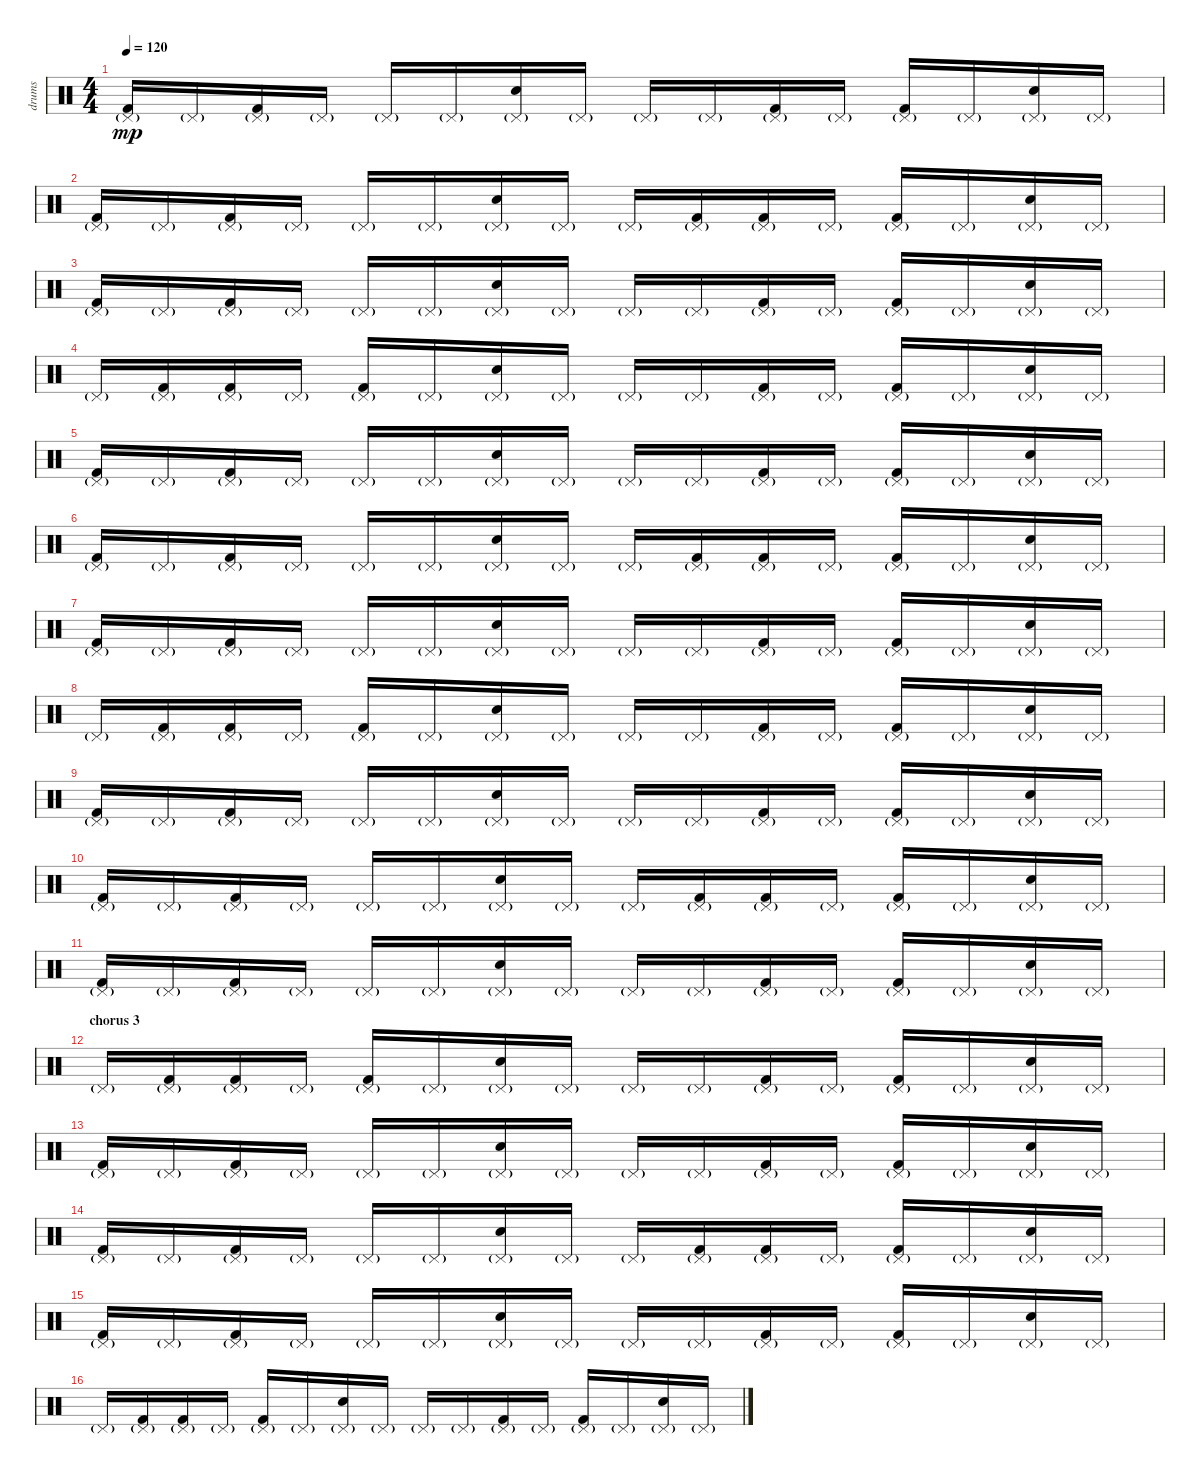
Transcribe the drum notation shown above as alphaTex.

\track ("drums" "drums") {instrument percussion}
\staff {score}
\articulation defaults
\ts (4 4)
\tempo 120
\clef neutral
\ks c
("Kick (hit) 2" "Pedal Hi-Hat (hit)"{g}).16{dy mp} "Pedal Hi-Hat (hit)"{g}.16 ("Kick (hit) 2" "Pedal Hi-Hat (hit)"{g}).16 "Pedal Hi-Hat (hit)"{g}.16 "Pedal Hi-Hat (hit)"{g}.16 "Pedal Hi-Hat (hit)"{g}.16 ("Hand Clap (hit)" "Pedal Hi-Hat (hit)"{g}).16 "Pedal Hi-Hat (hit)"{g}.16 "Pedal Hi-Hat (hit)"{g}.16 "Pedal Hi-Hat (hit)"{g}.16 ("Kick (hit) 2" "Pedal Hi-Hat (hit)"{g}).16 "Pedal Hi-Hat (hit)"{g}.16 ("Kick (hit) 2" "Pedal Hi-Hat (hit)"{g}).16 "Pedal Hi-Hat (hit)"{g}.16 ("Hand Clap (hit)" "Pedal Hi-Hat (hit)"{g}).16 "Pedal Hi-Hat (hit)"{g}.16 |
("Kick (hit) 2" "Pedal Hi-Hat (hit)"{g}).16 "Pedal Hi-Hat (hit)"{g}.16 ("Kick (hit) 2" "Pedal Hi-Hat (hit)"{g}).16 "Pedal Hi-Hat (hit)"{g}.16 "Pedal Hi-Hat (hit)"{g}.16 "Pedal Hi-Hat (hit)"{g}.16 ("Hand Clap (hit)" "Pedal Hi-Hat (hit)"{g}).16 "Pedal Hi-Hat (hit)"{g}.16 "Pedal Hi-Hat (hit)"{g}.16 ("Kick (hit) 2" "Pedal Hi-Hat (hit)"{g}).16 ("Kick (hit) 2" "Pedal Hi-Hat (hit)"{g}).16 "Pedal Hi-Hat (hit)"{g}.16 ("Kick (hit) 2" "Pedal Hi-Hat (hit)"{g}).16 "Pedal Hi-Hat (hit)"{g}.16 ("Hand Clap (hit)" "Pedal Hi-Hat (hit)"{g}).16 "Pedal Hi-Hat (hit)"{g}.16 |
("Kick (hit) 2" "Pedal Hi-Hat (hit)"{g}).16 "Pedal Hi-Hat (hit)"{g}.16 ("Kick (hit) 2" "Pedal Hi-Hat (hit)"{g}).16 "Pedal Hi-Hat (hit)"{g}.16 "Pedal Hi-Hat (hit)"{g}.16 "Pedal Hi-Hat (hit)"{g}.16 ("Hand Clap (hit)" "Pedal Hi-Hat (hit)"{g}).16 "Pedal Hi-Hat (hit)"{g}.16 "Pedal Hi-Hat (hit)"{g}.16 "Pedal Hi-Hat (hit)"{g}.16 ("Kick (hit) 2" "Pedal Hi-Hat (hit)"{g}).16 "Pedal Hi-Hat (hit)"{g}.16 ("Kick (hit) 2" "Pedal Hi-Hat (hit)"{g}).16 "Pedal Hi-Hat (hit)"{g}.16 ("Hand Clap (hit)" "Pedal Hi-Hat (hit)"{g}).16 "Pedal Hi-Hat (hit)"{g}.16 |
"Pedal Hi-Hat (hit)"{g}.16 ("Kick (hit) 2" "Pedal Hi-Hat (hit)"{g}).16 ("Kick (hit) 2" "Pedal Hi-Hat (hit)"{g}).16 "Pedal Hi-Hat (hit)"{g}.16 ("Kick (hit) 2" "Pedal Hi-Hat (hit)"{g}).16 "Pedal Hi-Hat (hit)"{g}.16 ("Hand Clap (hit)" "Pedal Hi-Hat (hit)"{g}).16 "Pedal Hi-Hat (hit)"{g}.16 "Pedal Hi-Hat (hit)"{g}.16 "Pedal Hi-Hat (hit)"{g}.16 ("Kick (hit) 2" "Pedal Hi-Hat (hit)"{g}).16 "Pedal Hi-Hat (hit)"{g}.16 ("Kick (hit) 2" "Pedal Hi-Hat (hit)"{g}).16 "Pedal Hi-Hat (hit)"{g}.16 ("Hand Clap (hit)" "Pedal Hi-Hat (hit)"{g}).16 "Pedal Hi-Hat (hit)"{g}.16 |
("Kick (hit) 2" "Pedal Hi-Hat (hit)"{g}).16 "Pedal Hi-Hat (hit)"{g}.16 ("Kick (hit) 2" "Pedal Hi-Hat (hit)"{g}).16 "Pedal Hi-Hat (hit)"{g}.16 "Pedal Hi-Hat (hit)"{g}.16 "Pedal Hi-Hat (hit)"{g}.16 ("Hand Clap (hit)" "Pedal Hi-Hat (hit)"{g}).16 "Pedal Hi-Hat (hit)"{g}.16 "Pedal Hi-Hat (hit)"{g}.16 "Pedal Hi-Hat (hit)"{g}.16 ("Kick (hit) 2" "Pedal Hi-Hat (hit)"{g}).16 "Pedal Hi-Hat (hit)"{g}.16 ("Kick (hit) 2" "Pedal Hi-Hat (hit)"{g}).16 "Pedal Hi-Hat (hit)"{g}.16 ("Hand Clap (hit)" "Pedal Hi-Hat (hit)"{g}).16 "Pedal Hi-Hat (hit)"{g}.16 |
("Kick (hit) 2" "Pedal Hi-Hat (hit)"{g}).16 "Pedal Hi-Hat (hit)"{g}.16 ("Kick (hit) 2" "Pedal Hi-Hat (hit)"{g}).16 "Pedal Hi-Hat (hit)"{g}.16 "Pedal Hi-Hat (hit)"{g}.16 "Pedal Hi-Hat (hit)"{g}.16 ("Hand Clap (hit)" "Pedal Hi-Hat (hit)"{g}).16 "Pedal Hi-Hat (hit)"{g}.16 "Pedal Hi-Hat (hit)"{g}.16 ("Kick (hit) 2" "Pedal Hi-Hat (hit)"{g}).16 ("Kick (hit) 2" "Pedal Hi-Hat (hit)"{g}).16 "Pedal Hi-Hat (hit)"{g}.16 ("Kick (hit) 2" "Pedal Hi-Hat (hit)"{g}).16 "Pedal Hi-Hat (hit)"{g}.16 ("Hand Clap (hit)" "Pedal Hi-Hat (hit)"{g}).16 "Pedal Hi-Hat (hit)"{g}.16 |
("Kick (hit) 2" "Pedal Hi-Hat (hit)"{g}).16 "Pedal Hi-Hat (hit)"{g}.16 ("Kick (hit) 2" "Pedal Hi-Hat (hit)"{g}).16 "Pedal Hi-Hat (hit)"{g}.16 "Pedal Hi-Hat (hit)"{g}.16 "Pedal Hi-Hat (hit)"{g}.16 ("Hand Clap (hit)" "Pedal Hi-Hat (hit)"{g}).16 "Pedal Hi-Hat (hit)"{g}.16 "Pedal Hi-Hat (hit)"{g}.16 "Pedal Hi-Hat (hit)"{g}.16 ("Kick (hit) 2" "Pedal Hi-Hat (hit)"{g}).16 "Pedal Hi-Hat (hit)"{g}.16 ("Kick (hit) 2" "Pedal Hi-Hat (hit)"{g}).16 "Pedal Hi-Hat (hit)"{g}.16 ("Hand Clap (hit)" "Pedal Hi-Hat (hit)"{g}).16 "Pedal Hi-Hat (hit)"{g}.16 |
"Pedal Hi-Hat (hit)"{g}.16 ("Kick (hit) 2" "Pedal Hi-Hat (hit)"{g}).16 ("Kick (hit) 2" "Pedal Hi-Hat (hit)"{g}).16 "Pedal Hi-Hat (hit)"{g}.16 ("Kick (hit) 2" "Pedal Hi-Hat (hit)"{g}).16 "Pedal Hi-Hat (hit)"{g}.16 ("Hand Clap (hit)" "Pedal Hi-Hat (hit)"{g}).16 "Pedal Hi-Hat (hit)"{g}.16 "Pedal Hi-Hat (hit)"{g}.16 "Pedal Hi-Hat (hit)"{g}.16 ("Kick (hit) 2" "Pedal Hi-Hat (hit)"{g}).16 "Pedal Hi-Hat (hit)"{g}.16 ("Kick (hit) 2" "Pedal Hi-Hat (hit)"{g}).16 "Pedal Hi-Hat (hit)"{g}.16 ("Hand Clap (hit)" "Pedal Hi-Hat (hit)"{g}).16 "Pedal Hi-Hat (hit)"{g}.16 |
("Kick (hit) 2" "Pedal Hi-Hat (hit)"{g}).16 "Pedal Hi-Hat (hit)"{g}.16 ("Kick (hit) 2" "Pedal Hi-Hat (hit)"{g}).16 "Pedal Hi-Hat (hit)"{g}.16 "Pedal Hi-Hat (hit)"{g}.16 "Pedal Hi-Hat (hit)"{g}.16 ("Hand Clap (hit)" "Pedal Hi-Hat (hit)"{g}).16 "Pedal Hi-Hat (hit)"{g}.16 "Pedal Hi-Hat (hit)"{g}.16 "Pedal Hi-Hat (hit)"{g}.16 ("Kick (hit) 2" "Pedal Hi-Hat (hit)"{g}).16 "Pedal Hi-Hat (hit)"{g}.16 ("Kick (hit) 2" "Pedal Hi-Hat (hit)"{g}).16 "Pedal Hi-Hat (hit)"{g}.16 ("Hand Clap (hit)" "Pedal Hi-Hat (hit)"{g}).16 "Pedal Hi-Hat (hit)"{g}.16 |
("Kick (hit) 2" "Pedal Hi-Hat (hit)"{g}).16 "Pedal Hi-Hat (hit)"{g}.16 ("Kick (hit) 2" "Pedal Hi-Hat (hit)"{g}).16 "Pedal Hi-Hat (hit)"{g}.16 "Pedal Hi-Hat (hit)"{g}.16 "Pedal Hi-Hat (hit)"{g}.16 ("Hand Clap (hit)" "Pedal Hi-Hat (hit)"{g}).16 "Pedal Hi-Hat (hit)"{g}.16 "Pedal Hi-Hat (hit)"{g}.16 ("Kick (hit) 2" "Pedal Hi-Hat (hit)"{g}).16 ("Kick (hit) 2" "Pedal Hi-Hat (hit)"{g}).16 "Pedal Hi-Hat (hit)"{g}.16 ("Kick (hit) 2" "Pedal Hi-Hat (hit)"{g}).16 "Pedal Hi-Hat (hit)"{g}.16 ("Hand Clap (hit)" "Pedal Hi-Hat (hit)"{g}).16 "Pedal Hi-Hat (hit)"{g}.16 |
("Kick (hit) 2" "Pedal Hi-Hat (hit)"{g}).16 "Pedal Hi-Hat (hit)"{g}.16 ("Kick (hit) 2" "Pedal Hi-Hat (hit)"{g}).16 "Pedal Hi-Hat (hit)"{g}.16 "Pedal Hi-Hat (hit)"{g}.16 "Pedal Hi-Hat (hit)"{g}.16 ("Hand Clap (hit)" "Pedal Hi-Hat (hit)"{g}).16 "Pedal Hi-Hat (hit)"{g}.16 "Pedal Hi-Hat (hit)"{g}.16 "Pedal Hi-Hat (hit)"{g}.16 ("Kick (hit) 2" "Pedal Hi-Hat (hit)"{g}).16 "Pedal Hi-Hat (hit)"{g}.16 ("Kick (hit) 2" "Pedal Hi-Hat (hit)"{g}).16 "Pedal Hi-Hat (hit)"{g}.16 ("Hand Clap (hit)" "Pedal Hi-Hat (hit)"{g}).16 "Pedal Hi-Hat (hit)"{g}.16 |
\section ("" "chorus 3")
"Pedal Hi-Hat (hit)"{g}.16 ("Kick (hit) 2" "Pedal Hi-Hat (hit)"{g}).16 ("Kick (hit) 2" "Pedal Hi-Hat (hit)"{g}).16 "Pedal Hi-Hat (hit)"{g}.16 ("Kick (hit) 2" "Pedal Hi-Hat (hit)"{g}).16 "Pedal Hi-Hat (hit)"{g}.16 ("Hand Clap (hit)" "Pedal Hi-Hat (hit)"{g}).16 "Pedal Hi-Hat (hit)"{g}.16 "Pedal Hi-Hat (hit)"{g}.16 "Pedal Hi-Hat (hit)"{g}.16 ("Kick (hit) 2" "Pedal Hi-Hat (hit)"{g}).16 "Pedal Hi-Hat (hit)"{g}.16 ("Kick (hit) 2" "Pedal Hi-Hat (hit)"{g}).16 "Pedal Hi-Hat (hit)"{g}.16 ("Hand Clap (hit)" "Pedal Hi-Hat (hit)"{g}).16 "Pedal Hi-Hat (hit)"{g}.16 |
("Kick (hit) 2" "Pedal Hi-Hat (hit)"{g}).16 "Pedal Hi-Hat (hit)"{g}.16 ("Kick (hit) 2" "Pedal Hi-Hat (hit)"{g}).16 "Pedal Hi-Hat (hit)"{g}.16 "Pedal Hi-Hat (hit)"{g}.16 "Pedal Hi-Hat (hit)"{g}.16 ("Hand Clap (hit)" "Pedal Hi-Hat (hit)"{g}).16 "Pedal Hi-Hat (hit)"{g}.16 "Pedal Hi-Hat (hit)"{g}.16 "Pedal Hi-Hat (hit)"{g}.16 ("Kick (hit) 2" "Pedal Hi-Hat (hit)"{g}).16 "Pedal Hi-Hat (hit)"{g}.16 ("Kick (hit) 2" "Pedal Hi-Hat (hit)"{g}).16 "Pedal Hi-Hat (hit)"{g}.16 ("Hand Clap (hit)" "Pedal Hi-Hat (hit)"{g}).16 "Pedal Hi-Hat (hit)"{g}.16 |
("Kick (hit) 2" "Pedal Hi-Hat (hit)"{g}).16 "Pedal Hi-Hat (hit)"{g}.16 ("Kick (hit) 2" "Pedal Hi-Hat (hit)"{g}).16 "Pedal Hi-Hat (hit)"{g}.16 "Pedal Hi-Hat (hit)"{g}.16 "Pedal Hi-Hat (hit)"{g}.16 ("Hand Clap (hit)" "Pedal Hi-Hat (hit)"{g}).16 "Pedal Hi-Hat (hit)"{g}.16 "Pedal Hi-Hat (hit)"{g}.16 ("Kick (hit) 2" "Pedal Hi-Hat (hit)"{g}).16 ("Kick (hit) 2" "Pedal Hi-Hat (hit)"{g}).16 "Pedal Hi-Hat (hit)"{g}.16 ("Kick (hit) 2" "Pedal Hi-Hat (hit)"{g}).16 "Pedal Hi-Hat (hit)"{g}.16 ("Hand Clap (hit)" "Pedal Hi-Hat (hit)"{g}).16 "Pedal Hi-Hat (hit)"{g}.16 |
("Kick (hit) 2" "Pedal Hi-Hat (hit)"{g}).16 "Pedal Hi-Hat (hit)"{g}.16 ("Kick (hit) 2" "Pedal Hi-Hat (hit)"{g}).16 "Pedal Hi-Hat (hit)"{g}.16 "Pedal Hi-Hat (hit)"{g}.16 "Pedal Hi-Hat (hit)"{g}.16 ("Hand Clap (hit)" "Pedal Hi-Hat (hit)"{g}).16 "Pedal Hi-Hat (hit)"{g}.16 "Pedal Hi-Hat (hit)"{g}.16 "Pedal Hi-Hat (hit)"{g}.16 ("Kick (hit) 2" "Pedal Hi-Hat (hit)"{g}).16 "Pedal Hi-Hat (hit)"{g}.16 ("Kick (hit) 2" "Pedal Hi-Hat (hit)"{g}).16 "Pedal Hi-Hat (hit)"{g}.16 ("Hand Clap (hit)" "Pedal Hi-Hat (hit)"{g}).16 "Pedal Hi-Hat (hit)"{g}.16 |
"Pedal Hi-Hat (hit)"{g}.16 ("Kick (hit) 2" "Pedal Hi-Hat (hit)"{g}).16 ("Kick (hit) 2" "Pedal Hi-Hat (hit)"{g}).16 "Pedal Hi-Hat (hit)"{g}.16 ("Kick (hit) 2" "Pedal Hi-Hat (hit)"{g}).16 "Pedal Hi-Hat (hit)"{g}.16 ("Hand Clap (hit)" "Pedal Hi-Hat (hit)"{g}).16 "Pedal Hi-Hat (hit)"{g}.16 "Pedal Hi-Hat (hit)"{g}.16 "Pedal Hi-Hat (hit)"{g}.16 ("Kick (hit) 2" "Pedal Hi-Hat (hit)"{g}).16 "Pedal Hi-Hat (hit)"{g}.16 ("Kick (hit) 2" "Pedal Hi-Hat (hit)"{g}).16 "Pedal Hi-Hat (hit)"{g}.16 ("Hand Clap (hit)" "Pedal Hi-Hat (hit)"{g}).16 "Pedal Hi-Hat (hit)"{g}.16
